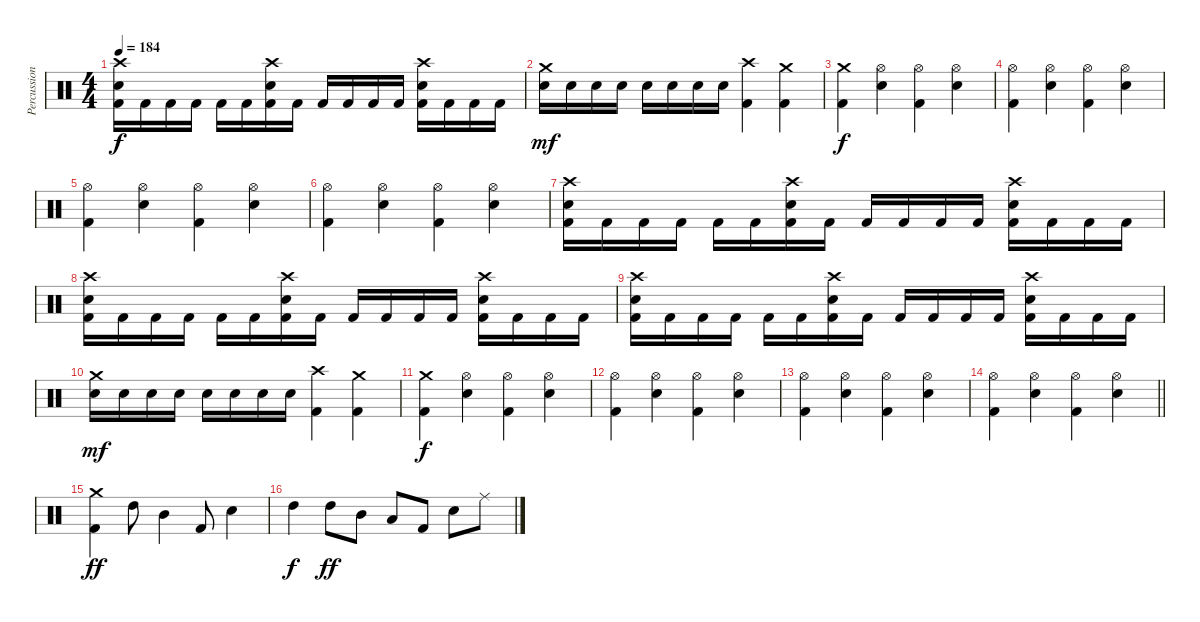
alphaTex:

\track ("Percussion" "Percussion") {instrument percussion}
\staff {score}
\articulation defaults
\ts (4 4)
\tempo 184
\clef neutral
\ks c
("Crash high (hit)" "Electric Snare (hit)" "Kick (hit) 2").16{dy f} "Kick (hit) 2".16 "Kick (hit) 2".16 "Kick (hit) 2".16 "Kick (hit) 2".16 "Kick (hit) 2".16 ("Crash high (hit)" "Electric Snare (hit)" "Kick (hit) 2").16 "Kick (hit) 2".16 "Kick (hit) 2".16 "Kick (hit) 2".16 "Kick (hit) 2".16 "Kick (hit) 2".16 ("Crash high (hit)" "Electric Snare (hit)" "Kick (hit) 2").16 "Kick (hit) 2".16 "Kick (hit) 2".16 "Kick (hit) 2".16 |
("Crash medium (hit)" "Electric Snare (hit)").16{dy mf} "Electric Snare (hit)".16 "Electric Snare (hit)".16 "Electric Snare (hit)".16 "Electric Snare (hit)".16 "Electric Snare (hit)".16 "Electric Snare (hit)".16 "Electric Snare (hit)".16 ("Crash high (hit)" "Kick (hit) 2").4 ("Crash medium (hit)" "Kick (hit) 2").4 |
("Crash medium (hit)" "Kick (hit) 2").4{dy f} ("Hi-Hat (open)" "Electric Snare (hit)").4 ("Hi-Hat (open)" "Kick (hit) 2").4 ("Hi-Hat (open)" "Electric Snare (hit)").4 |
("Hi-Hat (open)" "Kick (hit) 2").4 ("Hi-Hat (open)" "Electric Snare (hit)").4 ("Hi-Hat (open)" "Kick (hit) 2").4 ("Hi-Hat (open)" "Electric Snare (hit)").4 |
("Hi-Hat (open)" "Kick (hit) 2").4 ("Hi-Hat (open)" "Electric Snare (hit)").4 ("Hi-Hat (open)" "Kick (hit) 2").4 ("Hi-Hat (open)" "Electric Snare (hit)").4 |
("Hi-Hat (open)" "Kick (hit) 2").4 ("Hi-Hat (open)" "Electric Snare (hit)").4 ("Hi-Hat (open)" "Kick (hit) 2").4 ("Hi-Hat (open)" "Electric Snare (hit)").4 |
("Crash high (hit)" "Electric Snare (hit)" "Kick (hit) 2").16 "Kick (hit) 2".16 "Kick (hit) 2".16 "Kick (hit) 2".16 "Kick (hit) 2".16 "Kick (hit) 2".16 ("Crash high (hit)" "Electric Snare (hit)" "Kick (hit) 2").16 "Kick (hit) 2".16 "Kick (hit) 2".16 "Kick (hit) 2".16 "Kick (hit) 2".16 "Kick (hit) 2".16 ("Crash high (hit)" "Electric Snare (hit)" "Kick (hit) 2").16 "Kick (hit) 2".16 "Kick (hit) 2".16 "Kick (hit) 2".16 |
("Crash high (hit)" "Electric Snare (hit)" "Kick (hit) 2").16 "Kick (hit) 2".16 "Kick (hit) 2".16 "Kick (hit) 2".16 "Kick (hit) 2".16 "Kick (hit) 2".16 ("Crash high (hit)" "Electric Snare (hit)" "Kick (hit) 2").16 "Kick (hit) 2".16 "Kick (hit) 2".16 "Kick (hit) 2".16 "Kick (hit) 2".16 "Kick (hit) 2".16 ("Crash high (hit)" "Electric Snare (hit)" "Kick (hit) 2").16 "Kick (hit) 2".16 "Kick (hit) 2".16 "Kick (hit) 2".16 |
("Crash high (hit)" "Electric Snare (hit)" "Kick (hit) 2").16 "Kick (hit) 2".16 "Kick (hit) 2".16 "Kick (hit) 2".16 "Kick (hit) 2".16 "Kick (hit) 2".16 ("Crash high (hit)" "Electric Snare (hit)" "Kick (hit) 2").16 "Kick (hit) 2".16 "Kick (hit) 2".16 "Kick (hit) 2".16 "Kick (hit) 2".16 "Kick (hit) 2".16 ("Crash high (hit)" "Electric Snare (hit)" "Kick (hit) 2").16 "Kick (hit) 2".16 "Kick (hit) 2".16 "Kick (hit) 2".16 |
("Crash medium (hit)" "Electric Snare (hit)").16{dy mf} "Electric Snare (hit)".16 "Electric Snare (hit)".16 "Electric Snare (hit)".16 "Electric Snare (hit)".16 "Electric Snare (hit)".16 "Electric Snare (hit)".16 "Electric Snare (hit)".16 ("Crash high (hit)" "Kick (hit) 2").4 ("Crash medium (hit)" "Kick (hit) 2").4 |
("Crash medium (hit)" "Kick (hit) 2").4{dy f} ("Hi-Hat (open)" "Electric Snare (hit)").4 ("Hi-Hat (open)" "Kick (hit) 2").4 ("Hi-Hat (open)" "Electric Snare (hit)").4 |
("Hi-Hat (open)" "Kick (hit) 2").4 ("Hi-Hat (open)" "Electric Snare (hit)").4 ("Hi-Hat (open)" "Kick (hit) 2").4 ("Hi-Hat (open)" "Electric Snare (hit)").4 |
("Hi-Hat (open)" "Kick (hit) 2").4 ("Hi-Hat (open)" "Electric Snare (hit)").4 ("Hi-Hat (open)" "Kick (hit) 2").4 ("Hi-Hat (open)" "Electric Snare (hit)").4 |
\barLineRight lightlight
("Hi-Hat (open)" "Kick (hit) 2").4 ("Hi-Hat (open)" "Electric Snare (hit)").4 ("Hi-Hat (open)" "Kick (hit) 2").4 ("Hi-Hat (open)" "Electric Snare (hit)").4 |
("Crash medium (hit)" "Kick (hit) 2").4{dy ff} "High Tom (hit)".8 "Mid Tom (hit)".4 "Kick (hit) 2".8 "Electric Snare (hit)".4 |
"High Tom (hit)".4{dy f} "High Tom (hit)".8{dy ff} "Mid Tom (hit)".8 "Low Tom (hit)".8 "Kick (hit) 2".8 "Electric Snare (hit)".8 "Ride (middle)".8
